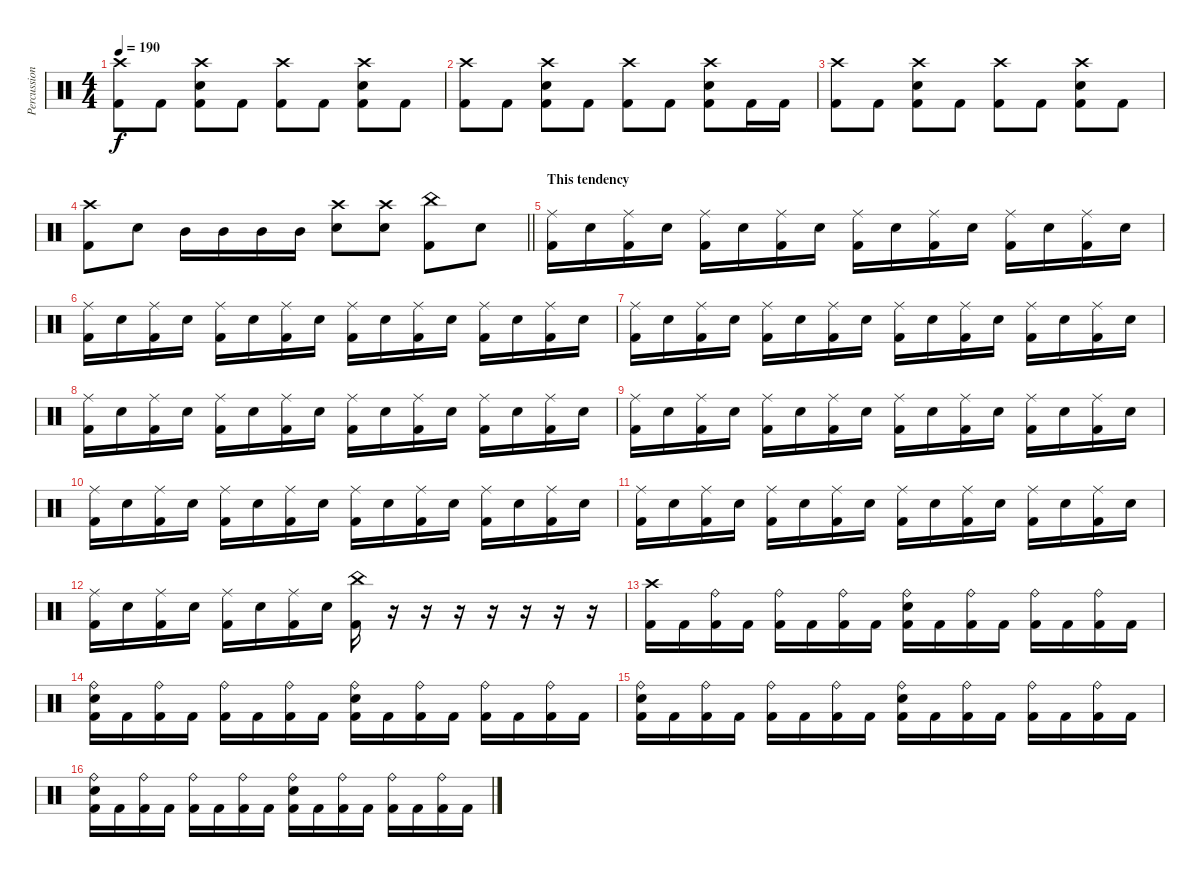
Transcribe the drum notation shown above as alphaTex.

\track ("Percussion" "Percussion") {instrument percussion}
\staff {score}
\articulation defaults
\ts (4 4)
\tempo 190
\clef neutral
\ks c
("Crash high (hit)" "Kick (hit) 2").8{dy f} "Kick (hit) 2".8 ("Crash high (hit)" "Snare (hit) 2" "Kick (hit) 2").8 "Kick (hit) 2".8 ("Crash high (hit)" "Kick (hit) 2").8 "Kick (hit) 2".8 ("Crash high (hit)" "Snare (hit) 2" "Kick (hit) 2").8 "Kick (hit) 2".8 |
("Crash high (hit)" "Kick (hit) 2").8 "Kick (hit) 2".8 ("Crash high (hit)" "Snare (hit) 2" "Kick (hit) 2").8 "Kick (hit) 2".8 ("Crash high (hit)" "Kick (hit) 2").8 "Kick (hit) 2".8 ("Crash high (hit)" "Snare (hit) 2" "Kick (hit) 2").8 "Kick (hit) 2".16 "Kick (hit) 2".16 |
("Crash high (hit)" "Kick (hit) 2").8 "Kick (hit) 2".8 ("Crash high (hit)" "Snare (hit) 2" "Kick (hit) 2").8 "Kick (hit) 2".8 ("Crash high (hit)" "Kick (hit) 2").8 "Kick (hit) 2".8 ("Crash high (hit)" "Snare (hit) 2" "Kick (hit) 2").8 "Kick (hit) 2".8 |
\barLineRight lightlight
("Crash high (hit)" "Kick (hit) 2").8 "Snare (hit) 2".8 "Mid Tom (hit)".16 "Mid Tom (hit)".16 "Mid Tom (hit)".16 "Mid Tom (hit)".16 ("Crash high (hit)" "Snare (hit) 2").8 ("Crash high (hit)" "Snare (hit) 2").8 ("China (hit)" "Kick (hit) 2").8 "Snare (hit) 2".8 |
\section ("" "This tendency")
("Ride (middle)" "Kick (hit) 2").16 "Snare (hit) 2".16 ("Ride (middle)" "Kick (hit) 2").16 "Snare (hit) 2".16 ("Ride (middle)" "Kick (hit) 2").16 "Snare (hit) 2".16 ("Ride (middle)" "Kick (hit) 2").16 "Snare (hit) 2".16 ("Ride (middle)" "Kick (hit) 2").16 "Snare (hit) 2".16 ("Ride (middle)" "Kick (hit) 2").16 "Snare (hit) 2".16 ("Ride (middle)" "Kick (hit) 2").16 "Snare (hit) 2".16 ("Ride (middle)" "Kick (hit) 2").16 "Snare (hit) 2".16 |
("Ride (middle)" "Kick (hit) 2").16 "Snare (hit) 2".16 ("Ride (middle)" "Kick (hit) 2").16 "Snare (hit) 2".16 ("Ride (middle)" "Kick (hit) 2").16 "Snare (hit) 2".16 ("Ride (middle)" "Kick (hit) 2").16 "Snare (hit) 2".16 ("Ride (middle)" "Kick (hit) 2").16 "Snare (hit) 2".16 ("Ride (middle)" "Kick (hit) 2").16 "Snare (hit) 2".16 ("Ride (middle)" "Kick (hit) 2").16 "Snare (hit) 2".16 ("Ride (middle)" "Kick (hit) 2").16 "Snare (hit) 2".16 |
("Ride (middle)" "Kick (hit) 2").16 "Snare (hit) 2".16 ("Ride (middle)" "Kick (hit) 2").16 "Snare (hit) 2".16 ("Ride (middle)" "Kick (hit) 2").16 "Snare (hit) 2".16 ("Ride (middle)" "Kick (hit) 2").16 "Snare (hit) 2".16 ("Ride (middle)" "Kick (hit) 2").16 "Snare (hit) 2".16 ("Ride (middle)" "Kick (hit) 2").16 "Snare (hit) 2".16 ("Ride (middle)" "Kick (hit) 2").16 "Snare (hit) 2".16 ("Ride (middle)" "Kick (hit) 2").16 "Snare (hit) 2".16 |
("Ride (middle)" "Kick (hit) 2").16 "Snare (hit) 2".16 ("Ride (middle)" "Kick (hit) 2").16 "Snare (hit) 2".16 ("Ride (middle)" "Kick (hit) 2").16 "Snare (hit) 2".16 ("Ride (middle)" "Kick (hit) 2").16 "Snare (hit) 2".16 ("Ride (middle)" "Kick (hit) 2").16 "Snare (hit) 2".16 ("Ride (middle)" "Kick (hit) 2").16 "Snare (hit) 2".16 ("Ride (middle)" "Kick (hit) 2").16 "Snare (hit) 2".16 ("Ride (middle)" "Kick (hit) 2").16 "Snare (hit) 2".16 |
("Ride (middle)" "Kick (hit) 2").16 "Snare (hit) 2".16 ("Ride (middle)" "Kick (hit) 2").16 "Snare (hit) 2".16 ("Ride (middle)" "Kick (hit) 2").16 "Snare (hit) 2".16 ("Ride (middle)" "Kick (hit) 2").16 "Snare (hit) 2".16 ("Ride (middle)" "Kick (hit) 2").16 "Snare (hit) 2".16 ("Ride (middle)" "Kick (hit) 2").16 "Snare (hit) 2".16 ("Ride (middle)" "Kick (hit) 2").16 "Snare (hit) 2".16 ("Ride (middle)" "Kick (hit) 2").16 "Snare (hit) 2".16 |
("Ride (middle)" "Kick (hit) 2").16 "Snare (hit) 2".16 ("Ride (middle)" "Kick (hit) 2").16 "Snare (hit) 2".16 ("Ride (middle)" "Kick (hit) 2").16 "Snare (hit) 2".16 ("Ride (middle)" "Kick (hit) 2").16 "Snare (hit) 2".16 ("Ride (middle)" "Kick (hit) 2").16 "Snare (hit) 2".16 ("Ride (middle)" "Kick (hit) 2").16 "Snare (hit) 2".16 ("Ride (middle)" "Kick (hit) 2").16 "Snare (hit) 2".16 ("Ride (middle)" "Kick (hit) 2").16 "Snare (hit) 2".16 |
("Ride (middle)" "Kick (hit) 2").16 "Snare (hit) 2".16 ("Ride (middle)" "Kick (hit) 2").16 "Snare (hit) 2".16 ("Ride (middle)" "Kick (hit) 2").16 "Snare (hit) 2".16 ("Ride (middle)" "Kick (hit) 2").16 "Snare (hit) 2".16 ("Ride (middle)" "Kick (hit) 2").16 "Snare (hit) 2".16 ("Ride (middle)" "Kick (hit) 2").16 "Snare (hit) 2".16 ("Ride (middle)" "Kick (hit) 2").16 "Snare (hit) 2".16 ("Ride (middle)" "Kick (hit) 2").16 "Snare (hit) 2".16 |
("Ride (middle)" "Kick (hit) 2").16 "Snare (hit) 2".16 ("Ride (middle)" "Kick (hit) 2").16 "Snare (hit) 2".16 ("Ride (middle)" "Kick (hit) 2").16 "Snare (hit) 2".16 ("Ride (middle)" "Kick (hit) 2").16 "Snare (hit) 2".16 ("China (hit)" "Kick (hit) 2").16 r.16 r.16 r.16 r.16 r.16 r.16 r.16 |
("Crash high (hit)" "Kick (hit) 2").16 "Kick (hit) 2".16 ("Ride (bell)" "Kick (hit) 2").16 "Kick (hit) 2".16 ("Ride (bell)" "Kick (hit) 2").16 "Kick (hit) 2".16 ("Ride (bell)" "Kick (hit) 2").16 "Kick (hit) 2".16 ("Ride (bell)" "Snare (hit) 2" "Kick (hit) 2").16 "Kick (hit) 2".16 ("Ride (bell)" "Kick (hit) 2").16 "Kick (hit) 2".16 ("Ride (bell)" "Kick (hit) 2").16 "Kick (hit) 2".16 ("Ride (bell)" "Kick (hit) 2").16 "Kick (hit) 2".16 |
("Ride (bell)" "Snare (hit) 2" "Kick (hit) 2").16 "Kick (hit) 2".16 ("Ride (bell)" "Kick (hit) 2").16 "Kick (hit) 2".16 ("Ride (bell)" "Kick (hit) 2").16 "Kick (hit) 2".16 ("Ride (bell)" "Kick (hit) 2").16 "Kick (hit) 2".16 ("Ride (bell)" "Snare (hit) 2" "Kick (hit) 2").16 "Kick (hit) 2".16 ("Ride (bell)" "Kick (hit) 2").16 "Kick (hit) 2".16 ("Ride (bell)" "Kick (hit) 2").16 "Kick (hit) 2".16 ("Ride (bell)" "Kick (hit) 2").16 "Kick (hit) 2".16 |
("Ride (bell)" "Snare (hit) 2" "Kick (hit) 2").16 "Kick (hit) 2".16 ("Ride (bell)" "Kick (hit) 2").16 "Kick (hit) 2".16 ("Ride (bell)" "Kick (hit) 2").16 "Kick (hit) 2".16 ("Ride (bell)" "Kick (hit) 2").16 "Kick (hit) 2".16 ("Ride (bell)" "Snare (hit) 2" "Kick (hit) 2").16 "Kick (hit) 2".16 ("Ride (bell)" "Kick (hit) 2").16 "Kick (hit) 2".16 ("Ride (bell)" "Kick (hit) 2").16 "Kick (hit) 2".16 ("Ride (bell)" "Kick (hit) 2").16 "Kick (hit) 2".16 |
("Ride (bell)" "Snare (hit) 2" "Kick (hit) 2").16 "Kick (hit) 2".16 ("Ride (bell)" "Kick (hit) 2").16 "Kick (hit) 2".16 ("Ride (bell)" "Kick (hit) 2").16 "Kick (hit) 2".16 ("Ride (bell)" "Kick (hit) 2").16 "Kick (hit) 2".16 ("Ride (bell)" "Snare (hit) 2" "Kick (hit) 2").16 "Kick (hit) 2".16 ("Ride (bell)" "Kick (hit) 2").16 "Kick (hit) 2".16 ("Ride (bell)" "Kick (hit) 2").16 "Kick (hit) 2".16 ("Ride (bell)" "Kick (hit) 2").16 "Kick (hit) 2".16
